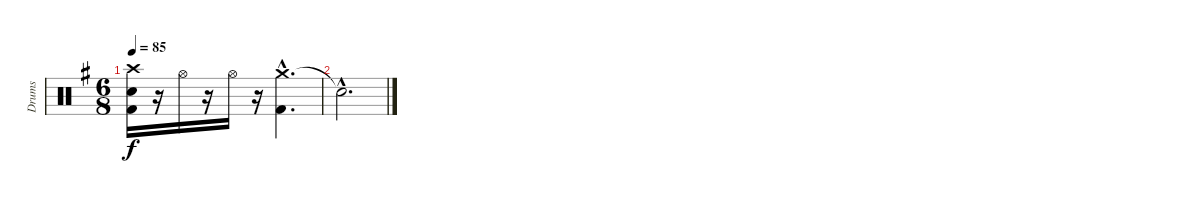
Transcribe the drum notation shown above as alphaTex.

\track ("Drums" "Drums") {instrument percussion}
\staff {score}
\articulation defaults
\ts (6 8)
\tempo 85
\clef neutral
\ks eminor
("Crash high (hit)" "Electric Snare (hit)" "Kick (hit) 2").16{dy f} r.16 "Hi-Hat (open)".16 r.16 "Hi-Hat (open)".16 r.16 ("Crash medium (hit)" "Kick (hit) 2"{hac}).4{d} |
"Snare (hit)"{hac t}.2{d}
